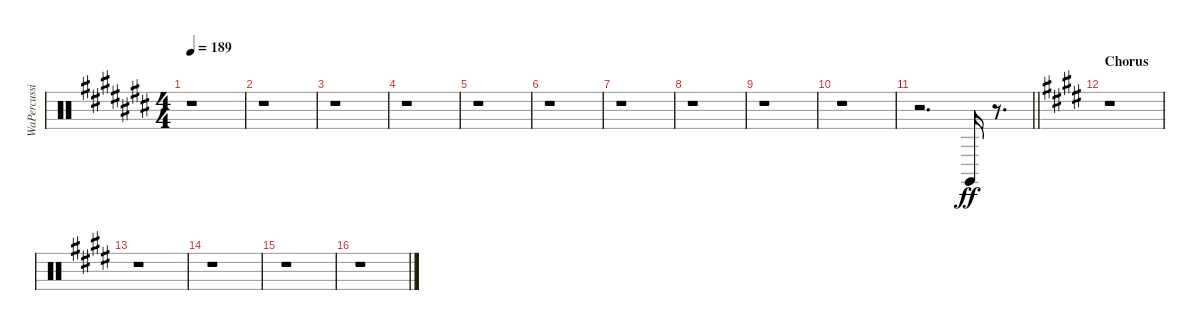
\track ("WaPercussion" "WaPercussi") {instrument percussion}
\staff {score}
\articulation defaults
\ts (4 4)
\tempo 189
\clef neutral
\ks a#minor
r.1{dy ff} |
\ks c#
r.1 |
\ks a#minor
r.1 |
r.1 |
r.1 |
\ks c#
r.1 |
\ks a#minor
r.1 |
r.1 |
r.1 |
r.1 |
\barLineRight lightlight
r.2{d} "Claves (hit)".16 r.8{d} |
\section ("" "Chorus")
\ks e
r.1 |
\ks c#minor
r.1 |
r.1 |
r.1 |
\ks e
r.1
